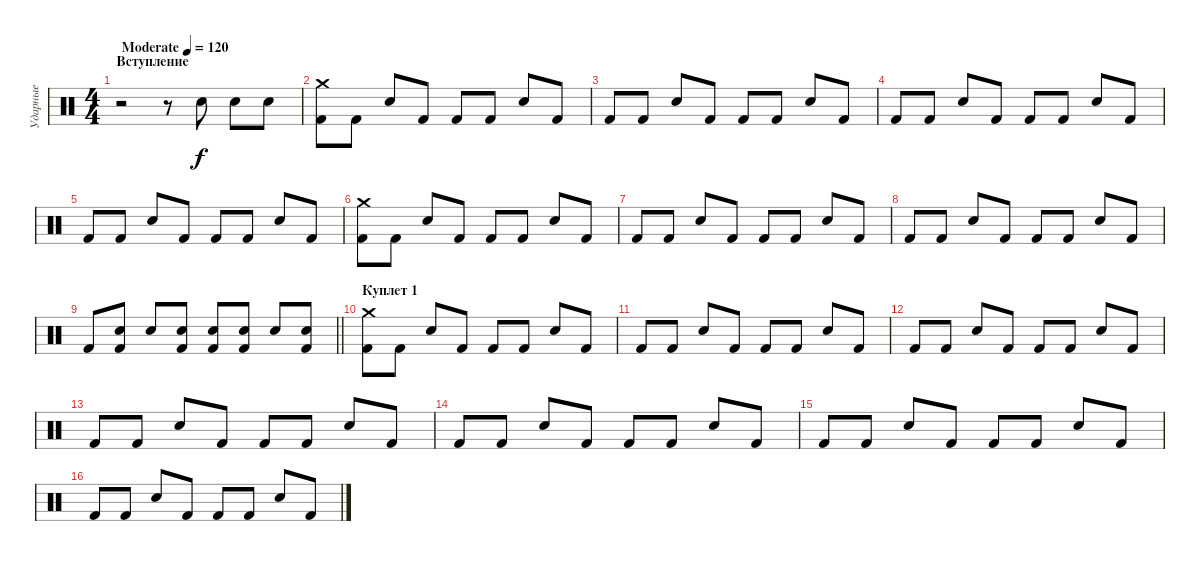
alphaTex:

\track ("Ударные" "Ударные") {instrument percussion}
\staff {score}
\articulation defaults
\ts (4 4)
\section ("" "Вступление")
\tempo (120 "Moderate")
\clef neutral
\ks c
r.2{dy f} r.8 "Snare (hit) 2".8 "Snare (hit) 2".8 "Snare (hit) 2".8 |
("Kick (hit) 2" "Crash medium (hit)").8 "Kick (hit) 2".8 "Snare (hit) 2".8 "Kick (hit) 2".8 "Kick (hit) 2".8 "Kick (hit) 2".8 "Snare (hit) 2".8 "Kick (hit) 2".8 |
"Kick (hit) 2".8 "Kick (hit) 2".8 "Snare (hit) 2".8 "Kick (hit) 2".8 "Kick (hit) 2".8 "Kick (hit) 2".8 "Snare (hit) 2".8 "Kick (hit) 2".8 |
"Kick (hit) 2".8 "Kick (hit) 2".8 "Snare (hit) 2".8 "Kick (hit) 2".8 "Kick (hit) 2".8 "Kick (hit) 2".8 "Snare (hit) 2".8 "Kick (hit) 2".8 |
"Kick (hit) 2".8 "Kick (hit) 2".8 "Snare (hit) 2".8 "Kick (hit) 2".8 "Kick (hit) 2".8 "Kick (hit) 2".8 "Snare (hit) 2".8 "Kick (hit) 2".8 |
("Kick (hit) 2" "Crash medium (hit)").8 "Kick (hit) 2".8 "Snare (hit) 2".8 "Kick (hit) 2".8 "Kick (hit) 2".8 "Kick (hit) 2".8 "Snare (hit) 2".8 "Kick (hit) 2".8 |
"Kick (hit) 2".8 "Kick (hit) 2".8 "Snare (hit) 2".8 "Kick (hit) 2".8 "Kick (hit) 2".8 "Kick (hit) 2".8 "Snare (hit) 2".8 "Kick (hit) 2".8 |
"Kick (hit) 2".8 "Kick (hit) 2".8 "Snare (hit) 2".8 "Kick (hit) 2".8 "Kick (hit) 2".8 "Kick (hit) 2".8 "Snare (hit) 2".8 "Kick (hit) 2".8 |
\barLineRight lightlight "Kick (hit) 2".8
("Snare (hit) 2" "Kick (hit) 2").8 "Snare (hit) 2".8 ("Snare (hit) 2" "Kick (hit) 2").8 ("Snare (hit) 2" "Kick (hit) 2").8 ("Snare (hit) 2" "Kick (hit) 2").8 "Snare (hit) 2".8 ("Snare (hit) 2" "Kick (hit) 2").8 |
\section ("" "Куплет 1")
("Kick (hit) 2" "Crash medium (hit)").8 "Kick (hit) 2".8 "Snare (hit) 2".8 "Kick (hit) 2".8 "Kick (hit) 2".8 "Kick (hit) 2".8 "Snare (hit) 2".8 "Kick (hit) 2".8 |
"Kick (hit) 2".8 "Kick (hit) 2".8 "Snare (hit) 2".8 "Kick (hit) 2".8 "Kick (hit) 2".8 "Kick (hit) 2".8 "Snare (hit) 2".8 "Kick (hit) 2".8 |
"Kick (hit) 2".8 "Kick (hit) 2".8 "Snare (hit) 2".8 "Kick (hit) 2".8 "Kick (hit) 2".8 "Kick (hit) 2".8 "Snare (hit) 2".8 "Kick (hit) 2".8 |
"Kick (hit) 2".8 "Kick (hit) 2".8 "Snare (hit) 2".8 "Kick (hit) 2".8 "Kick (hit) 2".8 "Kick (hit) 2".8 "Snare (hit) 2".8 "Kick (hit) 2".8 |
"Kick (hit) 2".8 "Kick (hit) 2".8 "Snare (hit) 2".8 "Kick (hit) 2".8 "Kick (hit) 2".8 "Kick (hit) 2".8 "Snare (hit) 2".8 "Kick (hit) 2".8 |
"Kick (hit) 2".8 "Kick (hit) 2".8 "Snare (hit) 2".8 "Kick (hit) 2".8 "Kick (hit) 2".8 "Kick (hit) 2".8 "Snare (hit) 2".8 "Kick (hit) 2".8 |
"Kick (hit) 2".8 "Kick (hit) 2".8 "Snare (hit) 2".8 "Kick (hit) 2".8 "Kick (hit) 2".8 "Kick (hit) 2".8 "Snare (hit) 2".8 "Kick (hit) 2".8
